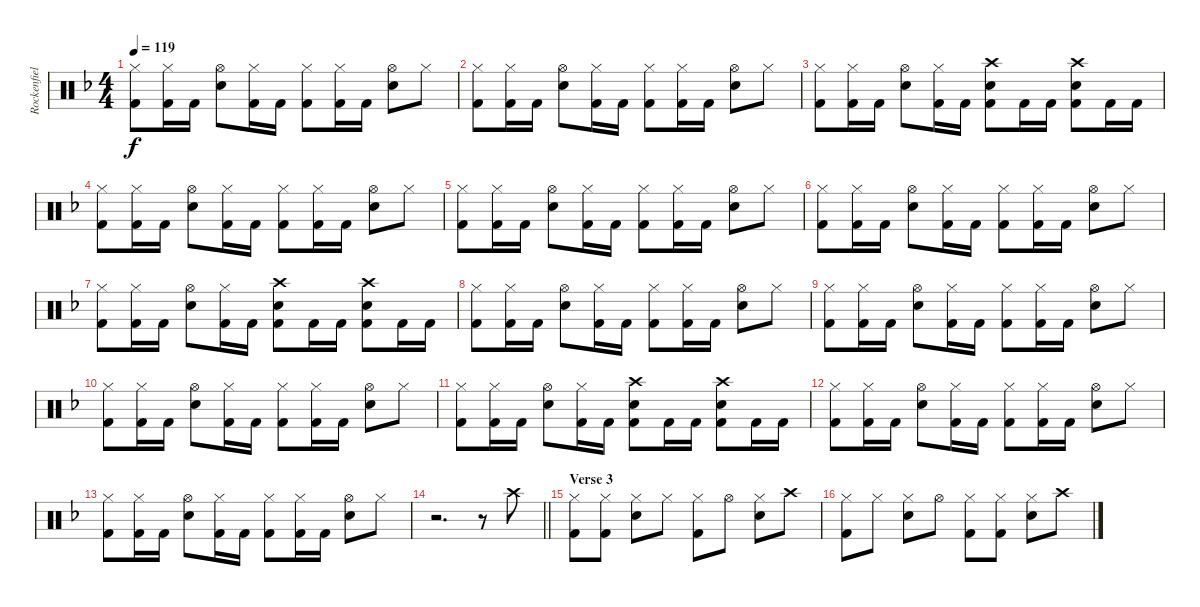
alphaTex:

\track ("Rockenfield" "Rockenfiel") {instrument percussion}
\staff {score}
\articulation defaults
\ts (4 4)
\tempo 119
\clef neutral
\ks dminor
("Hi-Hat (closed)" "Kick (hit) 2").8{dy f} ("Hi-Hat (closed)" "Kick (hit) 2").16 "Kick (hit) 2".16 ("Hi-Hat (open)" "Snare (hit) 2").8 ("Hi-Hat (closed)" "Kick (hit) 2").16 "Kick (hit) 2".16 ("Hi-Hat (closed)" "Kick (hit) 2").8 ("Hi-Hat (closed)" "Kick (hit) 2").16 "Kick (hit) 2".16 ("Hi-Hat (open)" "Snare (hit) 2").8 "Hi-Hat (closed)".8 |
("Hi-Hat (closed)" "Kick (hit) 2").8 ("Hi-Hat (closed)" "Kick (hit) 2").16 "Kick (hit) 2".16 ("Hi-Hat (open)" "Snare (hit) 2").8 ("Hi-Hat (closed)" "Kick (hit) 2").16 "Kick (hit) 2".16 ("Hi-Hat (closed)" "Kick (hit) 2").8 ("Hi-Hat (closed)" "Kick (hit) 2").16 "Kick (hit) 2".16 ("Hi-Hat (open)" "Snare (hit) 2").8 "Hi-Hat (closed)".8 |
("Hi-Hat (closed)" "Kick (hit) 2").8 ("Hi-Hat (closed)" "Kick (hit) 2").16 "Kick (hit) 2".16 ("Hi-Hat (open)" "Snare (hit) 2").8 ("Hi-Hat (closed)" "Kick (hit) 2").16 "Kick (hit) 2".16 ("Crash high (hit)" "Kick (hit) 2" "Snare (hit) 2").8 "Kick (hit) 2".16 "Kick (hit) 2".16 ("Crash high (hit)" "Kick (hit) 2" "Snare (hit) 2").8 "Kick (hit) 2".16 "Kick (hit) 2".16 |
("Hi-Hat (closed)" "Kick (hit) 2").8 ("Hi-Hat (closed)" "Kick (hit) 2").16 "Kick (hit) 2".16 ("Hi-Hat (open)" "Snare (hit) 2").8 ("Hi-Hat (closed)" "Kick (hit) 2").16 "Kick (hit) 2".16 ("Hi-Hat (closed)" "Kick (hit) 2").8 ("Hi-Hat (closed)" "Kick (hit) 2").16 "Kick (hit) 2".16 ("Hi-Hat (open)" "Snare (hit) 2").8 "Hi-Hat (closed)".8 |
("Hi-Hat (closed)" "Kick (hit) 2").8 ("Hi-Hat (closed)" "Kick (hit) 2").16 "Kick (hit) 2".16 ("Hi-Hat (open)" "Snare (hit) 2").8 ("Hi-Hat (closed)" "Kick (hit) 2").16 "Kick (hit) 2".16 ("Hi-Hat (closed)" "Kick (hit) 2").8 ("Hi-Hat (closed)" "Kick (hit) 2").16 "Kick (hit) 2".16 ("Hi-Hat (open)" "Snare (hit) 2").8 "Hi-Hat (closed)".8 |
("Hi-Hat (closed)" "Kick (hit) 2").8 ("Hi-Hat (closed)" "Kick (hit) 2").16 "Kick (hit) 2".16 ("Hi-Hat (open)" "Snare (hit) 2").8 ("Hi-Hat (closed)" "Kick (hit) 2").16 "Kick (hit) 2".16 ("Hi-Hat (closed)" "Kick (hit) 2").8 ("Hi-Hat (closed)" "Kick (hit) 2").16 "Kick (hit) 2".16 ("Hi-Hat (open)" "Snare (hit) 2").8 "Hi-Hat (closed)".8 |
("Hi-Hat (closed)" "Kick (hit) 2").8 ("Hi-Hat (closed)" "Kick (hit) 2").16 "Kick (hit) 2".16 ("Hi-Hat (open)" "Snare (hit) 2").8 ("Hi-Hat (closed)" "Kick (hit) 2").16 "Kick (hit) 2".16 ("Crash high (hit)" "Kick (hit) 2" "Snare (hit) 2").8 "Kick (hit) 2".16 "Kick (hit) 2".16 ("Crash high (hit)" "Kick (hit) 2" "Snare (hit) 2").8 "Kick (hit) 2".16 "Kick (hit) 2".16 |
("Hi-Hat (closed)" "Kick (hit) 2").8 ("Hi-Hat (closed)" "Kick (hit) 2").16 "Kick (hit) 2".16 ("Hi-Hat (open)" "Snare (hit) 2").8 ("Hi-Hat (closed)" "Kick (hit) 2").16 "Kick (hit) 2".16 ("Hi-Hat (closed)" "Kick (hit) 2").8 ("Hi-Hat (closed)" "Kick (hit) 2").16 "Kick (hit) 2".16 ("Hi-Hat (open)" "Snare (hit) 2").8 "Hi-Hat (closed)".8 |
("Hi-Hat (closed)" "Kick (hit) 2").8 ("Hi-Hat (closed)" "Kick (hit) 2").16 "Kick (hit) 2".16 ("Hi-Hat (open)" "Snare (hit) 2").8 ("Hi-Hat (closed)" "Kick (hit) 2").16 "Kick (hit) 2".16 ("Hi-Hat (closed)" "Kick (hit) 2").8 ("Hi-Hat (closed)" "Kick (hit) 2").16 "Kick (hit) 2".16 ("Hi-Hat (open)" "Snare (hit) 2").8 "Hi-Hat (closed)".8 |
("Hi-Hat (closed)" "Kick (hit) 2").8 ("Hi-Hat (closed)" "Kick (hit) 2").16 "Kick (hit) 2".16 ("Hi-Hat (open)" "Snare (hit) 2").8 ("Hi-Hat (closed)" "Kick (hit) 2").16 "Kick (hit) 2".16 ("Hi-Hat (closed)" "Kick (hit) 2").8 ("Hi-Hat (closed)" "Kick (hit) 2").16 "Kick (hit) 2".16 ("Hi-Hat (open)" "Snare (hit) 2").8 "Hi-Hat (closed)".8 |
("Hi-Hat (closed)" "Kick (hit) 2").8 ("Hi-Hat (closed)" "Kick (hit) 2").16 "Kick (hit) 2".16 ("Hi-Hat (open)" "Snare (hit) 2").8 ("Hi-Hat (closed)" "Kick (hit) 2").16 "Kick (hit) 2".16 ("Crash high (hit)" "Kick (hit) 2" "Snare (hit) 2").8 "Kick (hit) 2".16 "Kick (hit) 2".16 ("Crash high (hit)" "Kick (hit) 2" "Snare (hit) 2").8 "Kick (hit) 2".16 "Kick (hit) 2".16 |
("Hi-Hat (closed)" "Kick (hit) 2").8 ("Hi-Hat (closed)" "Kick (hit) 2").16 "Kick (hit) 2".16 ("Hi-Hat (open)" "Snare (hit) 2").8 ("Hi-Hat (closed)" "Kick (hit) 2").16 "Kick (hit) 2".16 ("Hi-Hat (closed)" "Kick (hit) 2").8 ("Hi-Hat (closed)" "Kick (hit) 2").16 "Kick (hit) 2".16 ("Hi-Hat (open)" "Snare (hit) 2").8 "Hi-Hat (closed)".8 |
("Hi-Hat (closed)" "Kick (hit) 2").8 ("Hi-Hat (closed)" "Kick (hit) 2").16 "Kick (hit) 2".16 ("Hi-Hat (open)" "Snare (hit) 2").8 ("Hi-Hat (closed)" "Kick (hit) 2").16 "Kick (hit) 2".16 ("Hi-Hat (closed)" "Kick (hit) 2").8 ("Hi-Hat (closed)" "Kick (hit) 2").16 "Kick (hit) 2".16 ("Hi-Hat (open)" "Snare (hit) 2").8 "Hi-Hat (closed)".8 |
\barLineRight lightlight
r.2{d} r.8 "Crash high (hit)".8 |
\section ("" "Verse 3")
("Hi-Hat (closed)" "Kick (hit) 2").8 ("Hi-Hat (closed)" "Kick (hit) 2").8 ("Hi-Hat (closed)" "Snare (hit) 2").8 "Hi-Hat (closed)".8 ("Hi-Hat (closed)" "Kick (hit) 2").8 "Hi-Hat (open)".8 ("Hi-Hat (closed)" "Snare (hit) 2").8 "Crash high (hit)".8 |
("Hi-Hat (closed)" "Kick (hit) 2").8 "Hi-Hat (closed)".8 ("Hi-Hat (closed)" "Snare (hit) 2").8 "Hi-Hat (open)".8 ("Hi-Hat (closed)" "Kick (hit) 2").8 ("Hi-Hat (closed)" "Kick (hit) 2").8 ("Hi-Hat (closed)" "Snare (hit) 2").8 "Crash high (hit)".8
